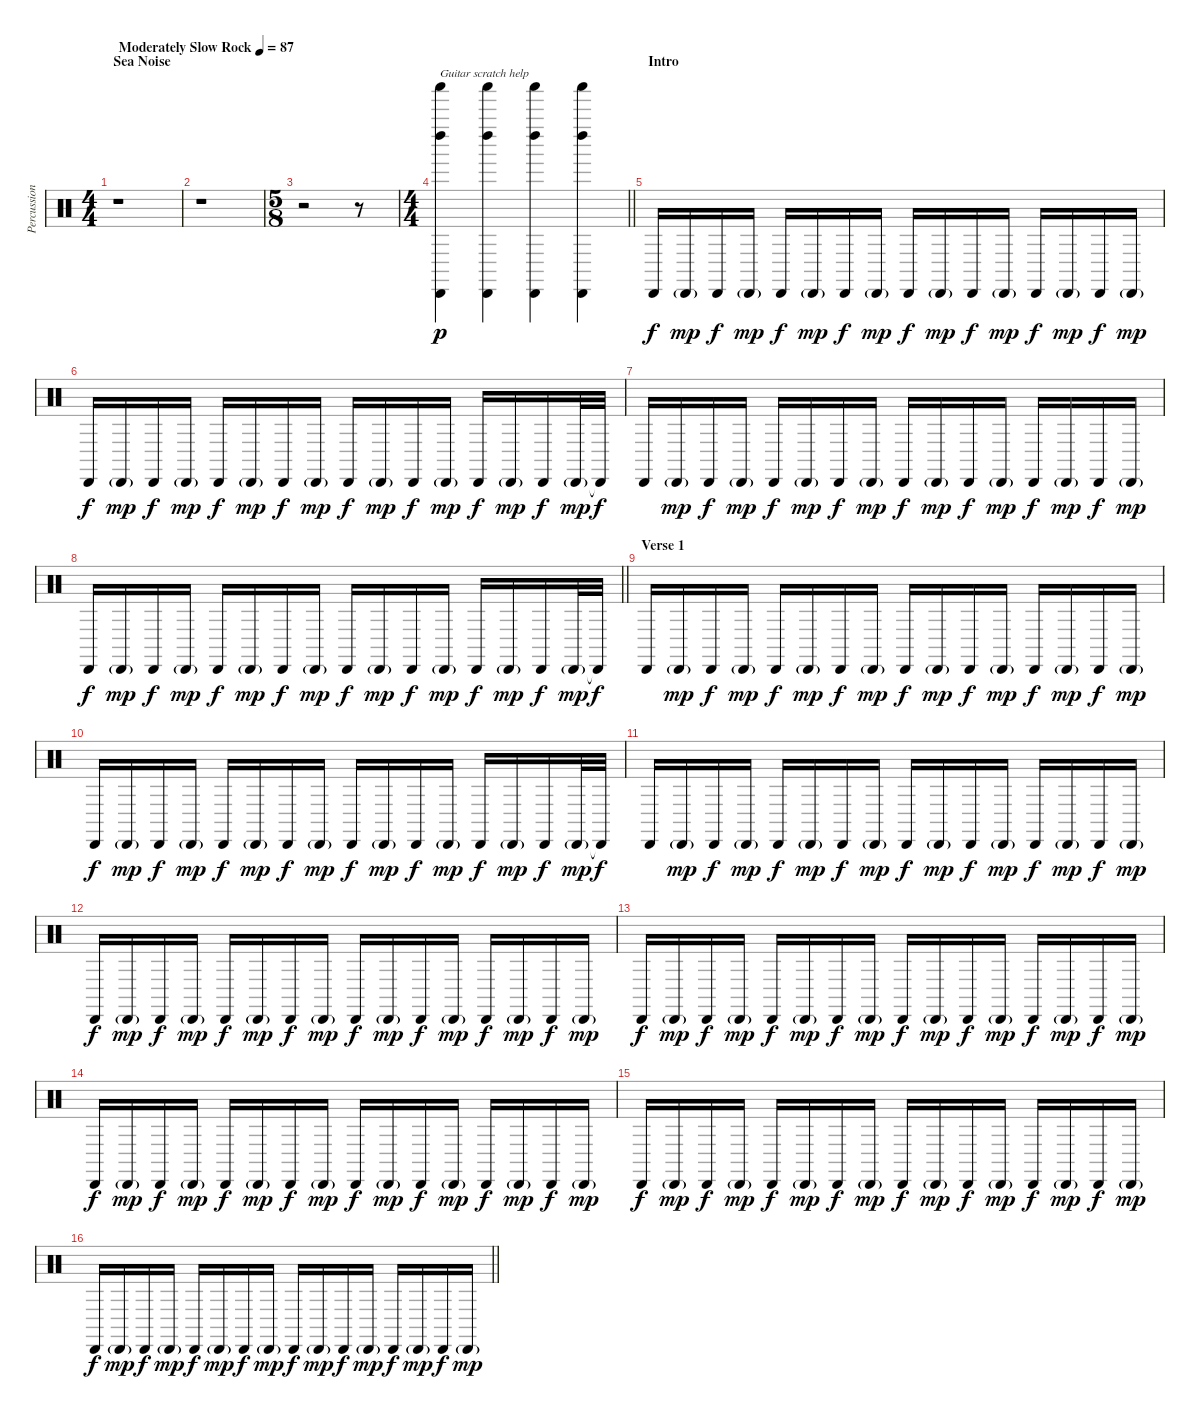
\track ("Percussion" "Percussion") {instrument percussion}
\staff {score}
\articulation defaults
\ts (4 4)
\section ("" "Sea Noise")
\tempo (87 "Moderately Slow Rock")
\clef neutral
\ks c
r.1{dy p} |
r.1 |
\ts (5 8)
r.2 r.8 |
\ts (4 4)
\barLineRight lightlight
("Shaker (hit)" "Cabasa (hit)" "Left Maraca (hit)").4{txt "Guitar scratch help"} ("Shaker (hit)" "Cabasa (hit)" "Left Maraca (hit)").4 ("Shaker (hit)" "Cabasa (hit)" "Left Maraca (hit)").4 ("Shaker (hit)" "Cabasa (hit)" "Left Maraca (hit)").4 |
\section ("" "Intro")
"Cabasa (hit)".16{dy f} "Cabasa (hit)"{g}.16{dy mp} "Cabasa (hit)".16{dy f} "Cabasa (hit)"{g}.16{dy mp} "Cabasa (hit)".16{dy f} "Cabasa (hit)"{g}.16{dy mp} "Cabasa (hit)".16{dy f} "Cabasa (hit)"{g}.16{dy mp} "Cabasa (hit)".16{dy f} "Cabasa (hit)"{g}.16{dy mp} "Cabasa (hit)".16{dy f} "Cabasa (hit)"{g}.16{dy mp} "Cabasa (hit)".16{dy f} "Cabasa (hit)"{g}.16{dy mp} "Cabasa (hit)".16{dy f} "Cabasa (hit)"{g}.16{dy mp} |
"Cabasa (hit)".16{dy f} "Cabasa (hit)"{g}.16{dy mp} "Cabasa (hit)".16{dy f} "Cabasa (hit)"{g}.16{dy mp} "Cabasa (hit)".16{dy f} "Cabasa (hit)"{g}.16{dy mp} "Cabasa (hit)".16{dy f} "Cabasa (hit)"{g}.16{dy mp} "Cabasa (hit)".16{dy f} "Cabasa (hit)"{g}.16{dy mp} "Cabasa (hit)".16{dy f} "Cabasa (hit)"{g}.16{dy mp} "Cabasa (hit)".16{dy f} "Cabasa (hit)"{g}.16{dy mp} "Cabasa (hit)".16{dy f} "Cabasa (hit)"{g}.32{dy mp} "Cabasa (hit)"{t}.32{dy f} |
"Cabasa (hit)".16 "Cabasa (hit)"{g}.16{dy mp} "Cabasa (hit)".16{dy f} "Cabasa (hit)"{g}.16{dy mp} "Cabasa (hit)".16{dy f} "Cabasa (hit)"{g}.16{dy mp} "Cabasa (hit)".16{dy f} "Cabasa (hit)"{g}.16{dy mp} "Cabasa (hit)".16{dy f} "Cabasa (hit)"{g}.16{dy mp} "Cabasa (hit)".16{dy f} "Cabasa (hit)"{g}.16{dy mp} "Cabasa (hit)".16{dy f} "Cabasa (hit)"{g}.16{dy mp} "Cabasa (hit)".16{dy f} "Cabasa (hit)"{g}.16{dy mp} |
\barLineRight lightlight "Cabasa (hit)".16{dy f} "Cabasa (hit)"{g}.16{dy mp} "Cabasa (hit)".16{dy f} "Cabasa (hit)"{g}.16{dy mp} "Cabasa (hit)".16{dy f} "Cabasa (hit)"{g}.16{dy mp} "Cabasa (hit)".16{dy f} "Cabasa (hit)"{g}.16{dy mp} "Cabasa (hit)".16{dy f} "Cabasa (hit)"{g}.16{dy mp} "Cabasa (hit)".16{dy f} "Cabasa (hit)"{g}.16{dy mp} "Cabasa (hit)".16{dy f} "Cabasa (hit)"{g}.16{dy mp} "Cabasa (hit)".16{dy f} "Cabasa (hit)"{g}.32{dy mp} "Cabasa (hit)"{t}.32{dy f}
|
\section ("" "Verse 1")
"Cabasa (hit)".16 "Cabasa (hit)"{g}.16{dy mp} "Cabasa (hit)".16{dy f} "Cabasa (hit)"{g}.16{dy mp} "Cabasa (hit)".16{dy f} "Cabasa (hit)"{g}.16{dy mp} "Cabasa (hit)".16{dy f} "Cabasa (hit)"{g}.16{dy mp} "Cabasa (hit)".16{dy f} "Cabasa (hit)"{g}.16{dy mp} "Cabasa (hit)".16{dy f} "Cabasa (hit)"{g}.16{dy mp} "Cabasa (hit)".16{dy f} "Cabasa (hit)"{g}.16{dy mp} "Cabasa (hit)".16{dy f} "Cabasa (hit)"{g}.16{dy mp} |
"Cabasa (hit)".16{dy f} "Cabasa (hit)"{g}.16{dy mp} "Cabasa (hit)".16{dy f} "Cabasa (hit)"{g}.16{dy mp} "Cabasa (hit)".16{dy f} "Cabasa (hit)"{g}.16{dy mp} "Cabasa (hit)".16{dy f} "Cabasa (hit)"{g}.16{dy mp} "Cabasa (hit)".16{dy f} "Cabasa (hit)"{g}.16{dy mp} "Cabasa (hit)".16{dy f} "Cabasa (hit)"{g}.16{dy mp} "Cabasa (hit)".16{dy f} "Cabasa (hit)"{g}.16{dy mp} "Cabasa (hit)".16{dy f} "Cabasa (hit)"{g}.32{dy mp} "Cabasa (hit)"{t}.32{dy f} |
"Cabasa (hit)".16 "Cabasa (hit)"{g}.16{dy mp} "Cabasa (hit)".16{dy f} "Cabasa (hit)"{g}.16{dy mp} "Cabasa (hit)".16{dy f} "Cabasa (hit)"{g}.16{dy mp} "Cabasa (hit)".16{dy f} "Cabasa (hit)"{g}.16{dy mp} "Cabasa (hit)".16{dy f} "Cabasa (hit)"{g}.16{dy mp} "Cabasa (hit)".16{dy f} "Cabasa (hit)"{g}.16{dy mp} "Cabasa (hit)".16{dy f} "Cabasa (hit)"{g}.16{dy mp} "Cabasa (hit)".16{dy f} "Cabasa (hit)"{g}.16{dy mp} |
"Cabasa (hit)".16{dy f} "Cabasa (hit)"{g}.16{dy mp} "Cabasa (hit)".16{dy f} "Cabasa (hit)"{g}.16{dy mp} "Cabasa (hit)".16{dy f} "Cabasa (hit)"{g}.16{dy mp} "Cabasa (hit)".16{dy f} "Cabasa (hit)"{g}.16{dy mp} "Cabasa (hit)".16{dy f} "Cabasa (hit)"{g}.16{dy mp} "Cabasa (hit)".16{dy f} "Cabasa (hit)"{g}.16{dy mp} "Cabasa (hit)".16{dy f} "Cabasa (hit)"{g}.16{dy mp} "Cabasa (hit)".16{dy f} "Cabasa (hit)"{g}.16{dy mp} |
"Cabasa (hit)".16{dy f} "Cabasa (hit)"{g}.16{dy mp} "Cabasa (hit)".16{dy f} "Cabasa (hit)"{g}.16{dy mp} "Cabasa (hit)".16{dy f} "Cabasa (hit)"{g}.16{dy mp} "Cabasa (hit)".16{dy f} "Cabasa (hit)"{g}.16{dy mp} "Cabasa (hit)".16{dy f} "Cabasa (hit)"{g}.16{dy mp} "Cabasa (hit)".16{dy f} "Cabasa (hit)"{g}.16{dy mp} "Cabasa (hit)".16{dy f} "Cabasa (hit)"{g}.16{dy mp} "Cabasa (hit)".16{dy f} "Cabasa (hit)"{g}.16{dy mp} |
"Cabasa (hit)".16{dy f} "Cabasa (hit)"{g}.16{dy mp} "Cabasa (hit)".16{dy f} "Cabasa (hit)"{g}.16{dy mp} "Cabasa (hit)".16{dy f} "Cabasa (hit)"{g}.16{dy mp} "Cabasa (hit)".16{dy f} "Cabasa (hit)"{g}.16{dy mp} "Cabasa (hit)".16{dy f} "Cabasa (hit)"{g}.16{dy mp} "Cabasa (hit)".16{dy f} "Cabasa (hit)"{g}.16{dy mp} "Cabasa (hit)".16{dy f} "Cabasa (hit)"{g}.16{dy mp} "Cabasa (hit)".16{dy f} "Cabasa (hit)"{g}.16{dy mp} |
"Cabasa (hit)".16{dy f} "Cabasa (hit)"{g}.16{dy mp} "Cabasa (hit)".16{dy f} "Cabasa (hit)"{g}.16{dy mp} "Cabasa (hit)".16{dy f} "Cabasa (hit)"{g}.16{dy mp} "Cabasa (hit)".16{dy f} "Cabasa (hit)"{g}.16{dy mp} "Cabasa (hit)".16{dy f} "Cabasa (hit)"{g}.16{dy mp} "Cabasa (hit)".16{dy f} "Cabasa (hit)"{g}.16{dy mp} "Cabasa (hit)".16{dy f} "Cabasa (hit)"{g}.16{dy mp} "Cabasa (hit)".16{dy f} "Cabasa (hit)"{g}.16{dy mp} |
\barLineRight lightlight "Cabasa (hit)".16{dy f} "Cabasa (hit)"{g}.16{dy mp} "Cabasa (hit)".16{dy f} "Cabasa (hit)"{g}.16{dy mp} "Cabasa (hit)".16{dy f} "Cabasa (hit)"{g}.16{dy mp} "Cabasa (hit)".16{dy f} "Cabasa (hit)"{g}.16{dy mp} "Cabasa (hit)".16{dy f} "Cabasa (hit)"{g}.16{dy mp} "Cabasa (hit)".16{dy f} "Cabasa (hit)"{g}.16{dy mp} "Cabasa (hit)".16{dy f} "Cabasa (hit)"{g}.16{dy mp} "Cabasa (hit)".16{dy f} "Cabasa (hit)"{g}.16{dy mp}
